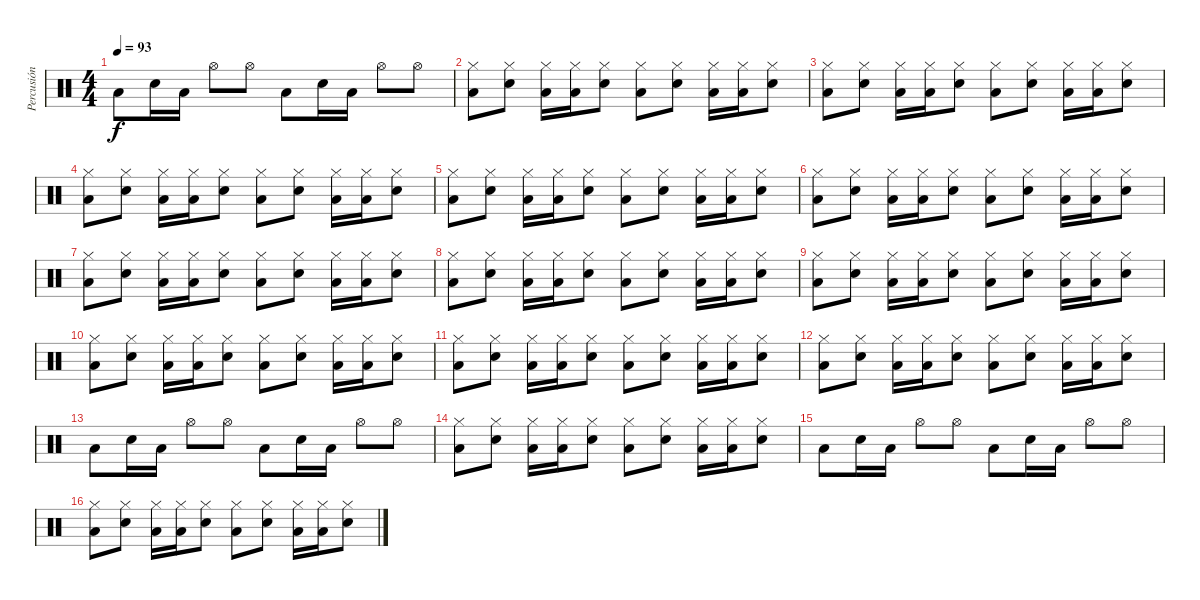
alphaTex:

\track ("Percusión (Miguel Tapia)" "Percusión ") {instrument percussion}
\staff {score}
\articulation defaults
\ts (4 4)
\tempo 93
\clef neutral
\ks c "Low Tom (hit)".8{dy f} "Electric Snare (hit)".16 "Low Tom (hit)".16 "Hi-Hat (open)".8 "Hi-Hat (open)".8 "Low Tom (hit)".8 "Electric Snare (hit)".16 "Low Tom (hit)".16 "Hi-Hat (open)".8 "Hi-Hat (open)".8
|
("Hi-Hat (closed)" "Low Tom (hit)").8 ("Hi-Hat (closed)" "Electric Snare (hit)").8 ("Hi-Hat (closed)" "Low Tom (hit)").16 ("Hi-Hat (closed)" "Low Tom (hit)").16 ("Hi-Hat (closed)" "Electric Snare (hit)").8 ("Hi-Hat (closed)" "Low Tom (hit)").8 ("Hi-Hat (closed)" "Electric Snare (hit)").8 ("Hi-Hat (closed)" "Low Tom (hit)").16 ("Hi-Hat (closed)" "Low Tom (hit)").16 ("Hi-Hat (closed)" "Electric Snare (hit)").8 |
("Hi-Hat (closed)" "Low Tom (hit)").8 ("Hi-Hat (closed)" "Electric Snare (hit)").8 ("Hi-Hat (closed)" "Low Tom (hit)").16 ("Hi-Hat (closed)" "Low Tom (hit)").16 ("Hi-Hat (closed)" "Electric Snare (hit)").8 ("Hi-Hat (closed)" "Low Tom (hit)").8 ("Hi-Hat (closed)" "Electric Snare (hit)").8 ("Hi-Hat (closed)" "Low Tom (hit)").16 ("Hi-Hat (closed)" "Low Tom (hit)").16 ("Hi-Hat (closed)" "Electric Snare (hit)").8 |
("Hi-Hat (closed)" "Low Tom (hit)").8 ("Hi-Hat (closed)" "Electric Snare (hit)").8 ("Hi-Hat (closed)" "Low Tom (hit)").16 ("Hi-Hat (closed)" "Low Tom (hit)").16 ("Hi-Hat (closed)" "Electric Snare (hit)").8 ("Hi-Hat (closed)" "Low Tom (hit)").8 ("Hi-Hat (closed)" "Electric Snare (hit)").8 ("Hi-Hat (closed)" "Low Tom (hit)").16 ("Hi-Hat (closed)" "Low Tom (hit)").16 ("Hi-Hat (closed)" "Electric Snare (hit)").8 |
("Hi-Hat (closed)" "Low Tom (hit)").8 ("Hi-Hat (closed)" "Electric Snare (hit)").8 ("Hi-Hat (closed)" "Low Tom (hit)").16 ("Hi-Hat (closed)" "Low Tom (hit)").16 ("Hi-Hat (closed)" "Electric Snare (hit)").8 ("Hi-Hat (closed)" "Low Tom (hit)").8 ("Hi-Hat (closed)" "Electric Snare (hit)").8 ("Hi-Hat (closed)" "Low Tom (hit)").16 ("Hi-Hat (closed)" "Low Tom (hit)").16 ("Hi-Hat (closed)" "Electric Snare (hit)").8 |
("Hi-Hat (closed)" "Low Tom (hit)").8 ("Hi-Hat (closed)" "Electric Snare (hit)").8 ("Hi-Hat (closed)" "Low Tom (hit)").16 ("Hi-Hat (closed)" "Low Tom (hit)").16 ("Hi-Hat (closed)" "Electric Snare (hit)").8 ("Hi-Hat (closed)" "Low Tom (hit)").8 ("Hi-Hat (closed)" "Electric Snare (hit)").8 ("Hi-Hat (closed)" "Low Tom (hit)").16 ("Hi-Hat (closed)" "Low Tom (hit)").16 ("Hi-Hat (closed)" "Electric Snare (hit)").8 |
("Hi-Hat (closed)" "Low Tom (hit)").8 ("Hi-Hat (closed)" "Electric Snare (hit)").8 ("Hi-Hat (closed)" "Low Tom (hit)").16 ("Hi-Hat (closed)" "Low Tom (hit)").16 ("Hi-Hat (closed)" "Electric Snare (hit)").8 ("Hi-Hat (closed)" "Low Tom (hit)").8 ("Hi-Hat (closed)" "Electric Snare (hit)").8 ("Hi-Hat (closed)" "Low Tom (hit)").16 ("Hi-Hat (closed)" "Low Tom (hit)").16 ("Hi-Hat (closed)" "Electric Snare (hit)").8 |
("Hi-Hat (closed)" "Low Tom (hit)").8 ("Hi-Hat (closed)" "Electric Snare (hit)").8 ("Hi-Hat (closed)" "Low Tom (hit)").16 ("Hi-Hat (closed)" "Low Tom (hit)").16 ("Hi-Hat (closed)" "Electric Snare (hit)").8 ("Hi-Hat (closed)" "Low Tom (hit)").8 ("Hi-Hat (closed)" "Electric Snare (hit)").8 ("Hi-Hat (closed)" "Low Tom (hit)").16 ("Hi-Hat (closed)" "Low Tom (hit)").16 ("Hi-Hat (closed)" "Electric Snare (hit)").8 |
("Hi-Hat (closed)" "Low Tom (hit)").8 ("Hi-Hat (closed)" "Electric Snare (hit)").8 ("Hi-Hat (closed)" "Low Tom (hit)").16 ("Hi-Hat (closed)" "Low Tom (hit)").16 ("Hi-Hat (closed)" "Electric Snare (hit)").8 ("Hi-Hat (closed)" "Low Tom (hit)").8 ("Hi-Hat (closed)" "Electric Snare (hit)").8 ("Hi-Hat (closed)" "Low Tom (hit)").16 ("Hi-Hat (closed)" "Low Tom (hit)").16 ("Hi-Hat (closed)" "Electric Snare (hit)").8 |
("Hi-Hat (closed)" "Low Tom (hit)").8 ("Hi-Hat (closed)" "Electric Snare (hit)").8 ("Hi-Hat (closed)" "Low Tom (hit)").16 ("Hi-Hat (closed)" "Low Tom (hit)").16 ("Hi-Hat (closed)" "Electric Snare (hit)").8 ("Hi-Hat (closed)" "Low Tom (hit)").8 ("Hi-Hat (closed)" "Electric Snare (hit)").8 ("Hi-Hat (closed)" "Low Tom (hit)").16 ("Hi-Hat (closed)" "Low Tom (hit)").16 ("Hi-Hat (closed)" "Electric Snare (hit)").8 |
("Hi-Hat (closed)" "Low Tom (hit)").8 ("Hi-Hat (closed)" "Electric Snare (hit)").8 ("Hi-Hat (closed)" "Low Tom (hit)").16 ("Hi-Hat (closed)" "Low Tom (hit)").16 ("Hi-Hat (closed)" "Electric Snare (hit)").8 ("Hi-Hat (closed)" "Low Tom (hit)").8 ("Hi-Hat (closed)" "Electric Snare (hit)").8 ("Hi-Hat (closed)" "Low Tom (hit)").16 ("Hi-Hat (closed)" "Low Tom (hit)").16 ("Hi-Hat (closed)" "Electric Snare (hit)").8 |
("Hi-Hat (closed)" "Low Tom (hit)").8 ("Hi-Hat (closed)" "Electric Snare (hit)").8 ("Hi-Hat (closed)" "Low Tom (hit)").16 ("Hi-Hat (closed)" "Low Tom (hit)").16 ("Hi-Hat (closed)" "Electric Snare (hit)").8 ("Hi-Hat (closed)" "Low Tom (hit)").8 ("Hi-Hat (closed)" "Electric Snare (hit)").8 ("Hi-Hat (closed)" "Low Tom (hit)").16 ("Hi-Hat (closed)" "Low Tom (hit)").16 ("Hi-Hat (closed)" "Electric Snare (hit)").8 |
"Low Tom (hit)".8 "Electric Snare (hit)".16 "Low Tom (hit)".16 "Hi-Hat (open)".8 "Hi-Hat (open)".8 "Low Tom (hit)".8 "Electric Snare (hit)".16 "Low Tom (hit)".16 "Hi-Hat (open)".8 "Hi-Hat (open)".8 |
("Hi-Hat (closed)" "Low Tom (hit)").8 ("Hi-Hat (closed)" "Electric Snare (hit)").8 ("Hi-Hat (closed)" "Low Tom (hit)").16 ("Hi-Hat (closed)" "Low Tom (hit)").16 ("Hi-Hat (closed)" "Electric Snare (hit)").8 ("Hi-Hat (closed)" "Low Tom (hit)").8 ("Hi-Hat (closed)" "Electric Snare (hit)").8 ("Hi-Hat (closed)" "Low Tom (hit)").16 ("Hi-Hat (closed)" "Low Tom (hit)").16 ("Hi-Hat (closed)" "Electric Snare (hit)").8 |
"Low Tom (hit)".8 "Electric Snare (hit)".16 "Low Tom (hit)".16 "Hi-Hat (open)".8 "Hi-Hat (open)".8 "Low Tom (hit)".8 "Electric Snare (hit)".16 "Low Tom (hit)".16 "Hi-Hat (open)".8 "Hi-Hat (open)".8 |
("Hi-Hat (closed)" "Low Tom (hit)").8 ("Hi-Hat (closed)" "Electric Snare (hit)").8 ("Hi-Hat (closed)" "Low Tom (hit)").16 ("Hi-Hat (closed)" "Low Tom (hit)").16 ("Hi-Hat (closed)" "Electric Snare (hit)").8 ("Hi-Hat (closed)" "Low Tom (hit)").8 ("Hi-Hat (closed)" "Electric Snare (hit)").8 ("Hi-Hat (closed)" "Low Tom (hit)").16 ("Hi-Hat (closed)" "Low Tom (hit)").16 ("Hi-Hat (closed)" "Electric Snare (hit)").8
